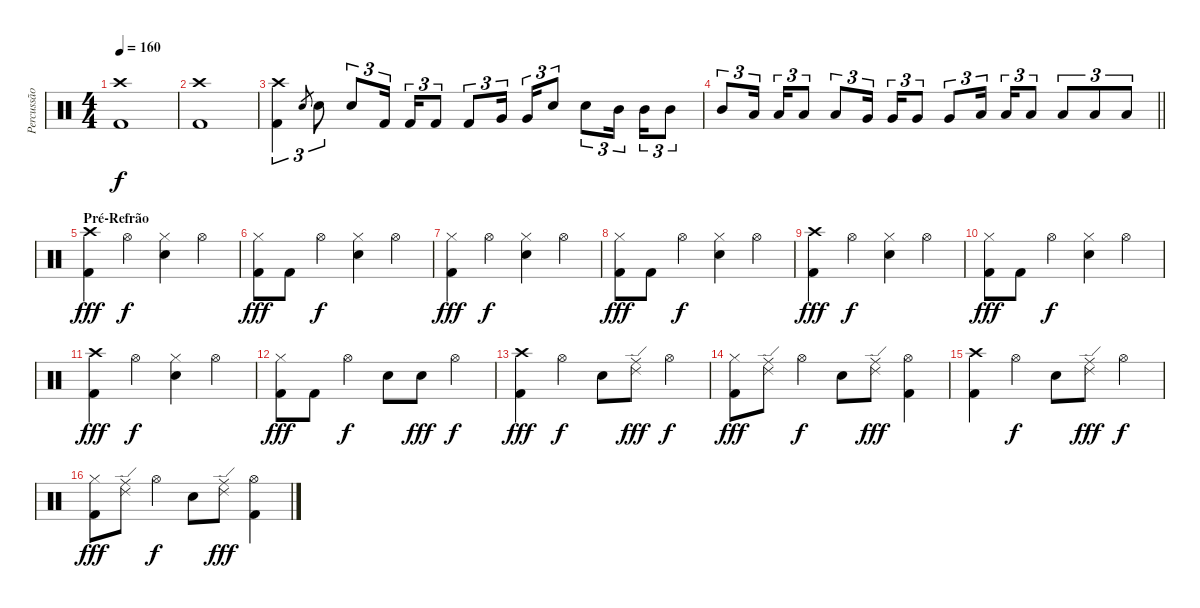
\track ("Percussão" "Percussão") {instrument percussion}
\staff {score}
\articulation defaults
\ts (4 4)
\tempo 160
\clef neutral
\ks c
("Crash high (hit)" "Kick (hit) 2").1{dy f} |
("Crash high (hit)" "Kick (hit) 2").1 |
("Crash high (hit)" "Kick (hit) 2").4{tu (3 2)} "Electric Snare (hit)".8{gr} "Electric Snare (hit)".8{tu (3 2)} "Electric Snare (hit)".8{tu (3 2)} "Kick (hit) 2".16{tu (3 2)} "Kick (hit) 2".16{tu (3 2)} "Kick (hit) 2".8{tu (3 2)} "Kick (hit) 2".8{tu (3 2)} "Very Low Tom (hit)".16{tu (3 2)} "Very Low Tom (hit)".16{tu (3 2)} "Electric Snare (hit)".8{tu (3 2)} "Electric Snare (hit)".8{tu (3 2)} "Mid Tom (hit)".16{tu (3 2)} "Mid Tom (hit)".16{tu (3 2)} "Mid Tom (hit)".8{tu (3 2)} |
\barLineRight lightlight "Mid Tom (hit)".8{tu (3 2)} "Low Tom (hit)".16{tu (3 2)} "Low Tom (hit)".16{tu (3 2)} "Low Tom (hit)".8{tu (3 2)} "Low Tom (hit)".8{tu (3 2)} "Very Low Tom (hit)".16{tu (3 2)} "Very Low Tom (hit)".16{tu (3 2)} "Very Low Tom (hit)".8{tu (3 2)} "Very Low Tom (hit)".8{tu (3 2)} "Low Floor Tom (hit)".16{tu (3 2)} "Low Floor Tom (hit)".16{tu (3 2)} "Low Floor Tom (hit)".8{tu (3 2)} "Low Floor Tom (hit)".8{tu (3 2)} "Low Floor Tom (hit)".8{tu (3 2)} "Low Floor Tom (hit)".8{tu (3 2)}
|
\section ("" "Pré-Refrão")
("Crash high (hit)" "Kick (hit) 2").4{dy fff} "Hi-Hat (open)".4{dy f} ("Hi-Hat (closed)" "Electric Snare (hit)").4 "Hi-Hat (open)".4 |
("Hi-Hat (closed)" "Kick (hit) 2").8{dy fff} "Kick (hit) 2".8 "Hi-Hat (open)".4{dy f} ("Hi-Hat (closed)" "Electric Snare (hit)").4 "Hi-Hat (open)".4 |
("Hi-Hat (closed)" "Kick (hit) 2").4{dy fff} "Hi-Hat (open)".4{dy f} ("Hi-Hat (closed)" "Electric Snare (hit)").4 "Hi-Hat (open)".4 |
("Hi-Hat (closed)" "Kick (hit) 2").8{dy fff} "Kick (hit) 2".8 "Hi-Hat (open)".4{dy f} ("Hi-Hat (closed)" "Electric Snare (hit)").4 "Hi-Hat (open)".4 |
("Crash high (hit)" "Kick (hit) 2").4{dy fff} "Hi-Hat (open)".4{dy f} ("Hi-Hat (closed)" "Electric Snare (hit)").4 "Hi-Hat (open)".4 |
("Hi-Hat (closed)" "Kick (hit) 2").8{dy fff} "Kick (hit) 2".8 "Hi-Hat (open)".4{dy f} ("Hi-Hat (closed)" "Electric Snare (hit)").4 "Hi-Hat (open)".4 |
("Crash high (hit)" "Kick (hit) 2").4{dy fff} "Hi-Hat (open)".4{dy f} ("Hi-Hat (closed)" "Electric Snare (hit)").4 "Hi-Hat (open)".4 |
("Hi-Hat (closed)" "Kick (hit) 2").8{dy fff} "Kick (hit) 2".8 "Hi-Hat (open)".4{dy f} "Electric Snare (hit)".8 "Electric Snare (hit)".8{dy fff} "Hi-Hat (open)".4{dy f} |
("Crash high (hit)" "Kick (hit) 2").4{dy fff} "Hi-Hat (open)".4{dy f} "Electric Snare (hit)".8 ("Ride (edge) 2" "Ride (middle)").8{dy fff} "Hi-Hat (open)".4{dy f} |
("Hi-Hat (closed)" "Kick (hit) 2").8{dy fff} ("Ride (edge) 2" "Ride (middle)").8 "Hi-Hat (open)".4{dy f} "Electric Snare (hit)".8 ("Ride (edge) 2" "Ride (middle)").8{dy fff} ("Hi-Hat (open)" "Kick (hit) 2").4 |
("Crash high (hit)" "Kick (hit) 2").4 "Hi-Hat (open)".4{dy f} "Electric Snare (hit)".8 ("Ride (edge) 2" "Ride (middle)").8{dy fff} "Hi-Hat (open)".4{dy f} |
("Hi-Hat (closed)" "Kick (hit) 2").8{dy fff} ("Ride (edge) 2" "Ride (middle)").8 "Hi-Hat (open)".4{dy f} "Electric Snare (hit)".8 ("Ride (edge) 2" "Ride (middle)").8{dy fff} ("Hi-Hat (open)" "Kick (hit) 2").4
